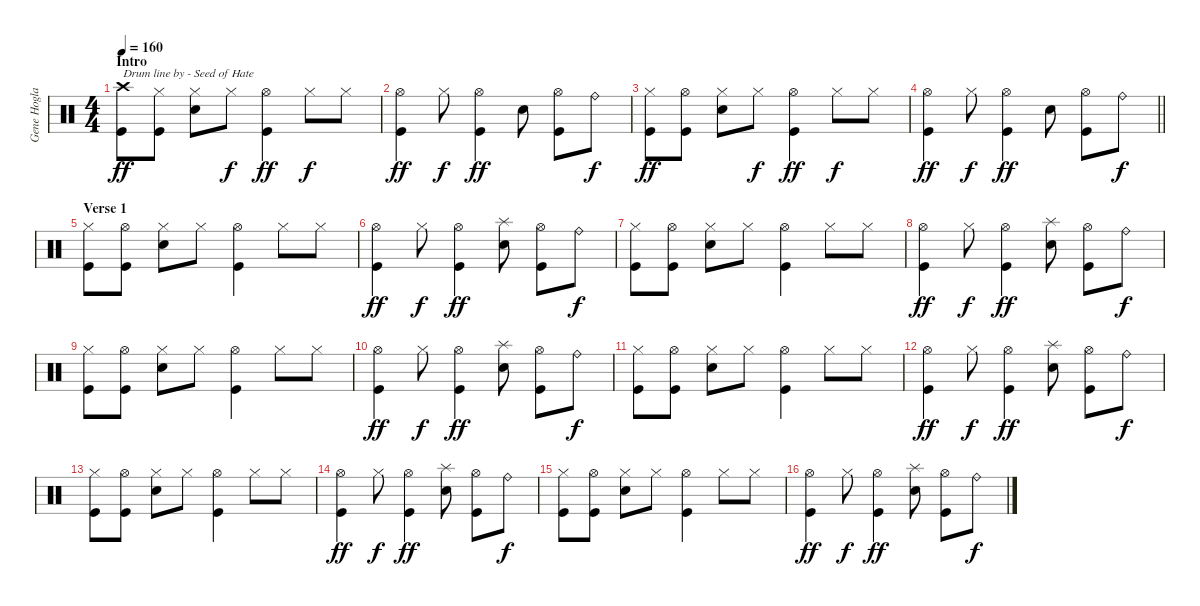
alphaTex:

\track ("Gene Hoglan" "Gene Hogla") {instrument percussion}
\staff {score}
\articulation defaults
\ts (4 4)
\section ("" "Intro")
\tempo 160
\clef neutral
\ks c
("Crash high (hit)" "Kick (hit)").8{txt "Drum line by - Seed of Hate" dy ff} ("Hi-Hat (closed)" "Kick (hit)").8 ("Hi-Hat (closed)" "Electric Snare (hit)").8 "Hi-Hat (closed)".8{dy f} ("Hi-Hat (open)" "Kick (hit)").4{dy ff} "Hi-Hat (closed)".8{dy f} "Hi-Hat (closed)".8 |
("Hi-Hat (open)" "Kick (hit)").4{dy ff} "Hi-Hat (closed)".8{dy f} ("Hi-Hat (open)" "Kick (hit)").4{dy ff} "Electric Snare (hit)".8 ("Hi-Hat (open)" "Kick (hit)").8 "Ride (bell)".8{dy f} |
("Hi-Hat (closed)" "Kick (hit)").8{dy ff} ("Hi-Hat (open)" "Kick (hit)").8 ("Hi-Hat (closed)" "Electric Snare (hit)").8 "Hi-Hat (closed)".8{dy f} ("Hi-Hat (open)" "Kick (hit)").4{dy ff} "Hi-Hat (closed)".8{dy f} "Hi-Hat (closed)".8 |
\barLineRight lightlight
("Hi-Hat (open)" "Kick (hit)").4{dy ff} "Hi-Hat (closed)".8{dy f} ("Hi-Hat (open)" "Kick (hit)").4{dy ff} "Electric Snare (hit)".8 ("Hi-Hat (open)" "Kick (hit)").8 "Ride (bell)".8{dy f} |
\section ("" "Verse 1")
("Hi-Hat (closed)" "Kick (hit)").8 ("Hi-Hat (open)" "Kick (hit)").8 ("Hi-Hat (closed)" "Electric Snare (hit)").8 "Hi-Hat (closed)".8 ("Hi-Hat (open)" "Kick (hit)").4 "Hi-Hat (closed)".8 "Hi-Hat (closed)".8 |
("Hi-Hat (open)" "Kick (hit)").4{dy ff} "Hi-Hat (closed)".8{dy f} ("Hi-Hat (open)" "Kick (hit)").4{dy ff} ("Splash (hit)" "Electric Snare (hit)").8 ("Hi-Hat (open)" "Kick (hit)").8 "Ride (bell)".8{dy f} |
("Hi-Hat (closed)" "Kick (hit)").8 ("Hi-Hat (open)" "Kick (hit)").8 ("Hi-Hat (closed)" "Electric Snare (hit)").8 "Hi-Hat (closed)".8 ("Hi-Hat (open)" "Kick (hit)").4 "Hi-Hat (closed)".8 "Hi-Hat (closed)".8 |
("Hi-Hat (open)" "Kick (hit)").4{dy ff} "Hi-Hat (closed)".8{dy f} ("Hi-Hat (open)" "Kick (hit)").4{dy ff} ("Splash (hit)" "Electric Snare (hit)").8 ("Hi-Hat (open)" "Kick (hit)").8 "Ride (bell)".8{dy f} |
("Hi-Hat (closed)" "Kick (hit)").8 ("Hi-Hat (open)" "Kick (hit)").8 ("Hi-Hat (closed)" "Electric Snare (hit)").8 "Hi-Hat (closed)".8 ("Hi-Hat (open)" "Kick (hit)").4 "Hi-Hat (closed)".8 "Hi-Hat (closed)".8 |
("Hi-Hat (open)" "Kick (hit)").4{dy ff} "Hi-Hat (closed)".8{dy f} ("Hi-Hat (open)" "Kick (hit)").4{dy ff} ("Splash (hit)" "Electric Snare (hit)").8 ("Hi-Hat (open)" "Kick (hit)").8 "Ride (bell)".8{dy f} |
("Hi-Hat (closed)" "Kick (hit)").8 ("Hi-Hat (open)" "Kick (hit)").8 ("Hi-Hat (closed)" "Electric Snare (hit)").8 "Hi-Hat (closed)".8 ("Hi-Hat (open)" "Kick (hit)").4 "Hi-Hat (closed)".8 "Hi-Hat (closed)".8 |
("Hi-Hat (open)" "Kick (hit)").4{dy ff} "Hi-Hat (closed)".8{dy f} ("Hi-Hat (open)" "Kick (hit)").4{dy ff} ("Splash (hit)" "Electric Snare (hit)").8 ("Hi-Hat (open)" "Kick (hit)").8 "Ride (bell)".8{dy f} |
("Hi-Hat (closed)" "Kick (hit)").8 ("Hi-Hat (open)" "Kick (hit)").8 ("Hi-Hat (closed)" "Electric Snare (hit)").8 "Hi-Hat (closed)".8 ("Hi-Hat (open)" "Kick (hit)").4 "Hi-Hat (closed)".8 "Hi-Hat (closed)".8 |
("Hi-Hat (open)" "Kick (hit)").4{dy ff} "Hi-Hat (closed)".8{dy f} ("Hi-Hat (open)" "Kick (hit)").4{dy ff} ("Splash (hit)" "Electric Snare (hit)").8 ("Hi-Hat (open)" "Kick (hit)").8 "Ride (bell)".8{dy f} |
("Hi-Hat (closed)" "Kick (hit)").8 ("Hi-Hat (open)" "Kick (hit)").8 ("Hi-Hat (closed)" "Electric Snare (hit)").8 "Hi-Hat (closed)".8 ("Hi-Hat (open)" "Kick (hit)").4 "Hi-Hat (closed)".8 "Hi-Hat (closed)".8 |
("Hi-Hat (open)" "Kick (hit)").4{dy ff} "Hi-Hat (closed)".8{dy f} ("Hi-Hat (open)" "Kick (hit)").4{dy ff} ("Splash (hit)" "Electric Snare (hit)").8 ("Hi-Hat (open)" "Kick (hit)").8 "Ride (bell)".8{dy f}
